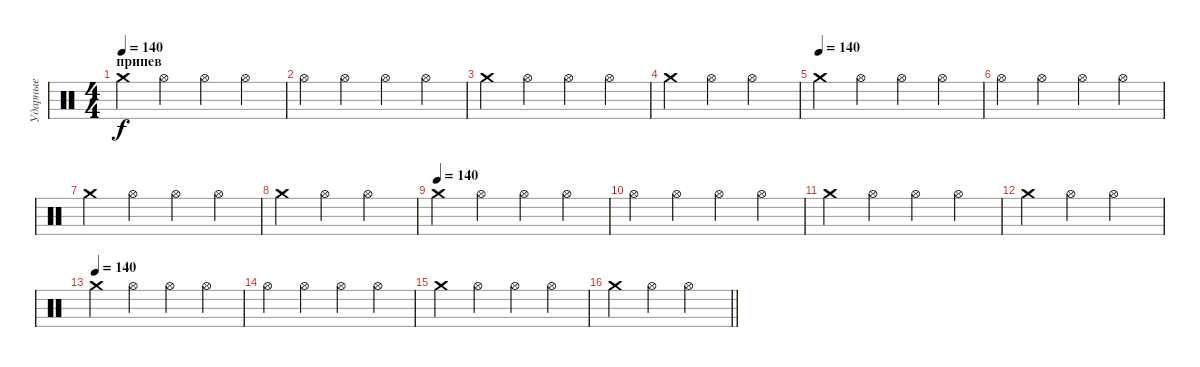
\track ("Ударные" "Ударные") {instrument percussion}
\staff {score}
\articulation defaults
\ts (4 4)
\section ("" "припев")
\tempo 140
\clef neutral
\ks c "Crash medium (hit)".4{dy f} "Hi-Hat (open)".4 "Hi-Hat (open)".4 "Hi-Hat (open)".4
|
"Hi-Hat (open)".4 "Hi-Hat (open)".4 "Hi-Hat (open)".4 "Hi-Hat (open)".4 |
"Crash medium (hit)".4 "Hi-Hat (open)".4 "Hi-Hat (open)".4 "Hi-Hat (open)".4 |
"Crash medium (hit)".4 "Hi-Hat (open)".4 "Hi-Hat (open)".2 |
\tempo (140)
"Crash medium (hit)".4 "Hi-Hat (open)".4 "Hi-Hat (open)".4 "Hi-Hat (open)".4 |
"Hi-Hat (open)".4 "Hi-Hat (open)".4 "Hi-Hat (open)".4 "Hi-Hat (open)".4 |
"Crash medium (hit)".4 "Hi-Hat (open)".4 "Hi-Hat (open)".4 "Hi-Hat (open)".4 |
"Crash medium (hit)".4 "Hi-Hat (open)".4 "Hi-Hat (open)".2 |
\tempo (140)
"Crash medium (hit)".4 "Hi-Hat (open)".4 "Hi-Hat (open)".4 "Hi-Hat (open)".4 |
"Hi-Hat (open)".4 "Hi-Hat (open)".4 "Hi-Hat (open)".4 "Hi-Hat (open)".4 |
"Crash medium (hit)".4 "Hi-Hat (open)".4 "Hi-Hat (open)".4 "Hi-Hat (open)".4 |
"Crash medium (hit)".4 "Hi-Hat (open)".4 "Hi-Hat (open)".2 |
\tempo (140)
"Crash medium (hit)".4 "Hi-Hat (open)".4 "Hi-Hat (open)".4 "Hi-Hat (open)".4 |
"Hi-Hat (open)".4 "Hi-Hat (open)".4 "Hi-Hat (open)".4 "Hi-Hat (open)".4 |
"Crash medium (hit)".4 "Hi-Hat (open)".4 "Hi-Hat (open)".4 "Hi-Hat (open)".4 |
\barLineRight lightlight "Crash medium (hit)".4 "Hi-Hat (open)".4 "Hi-Hat (open)".2
